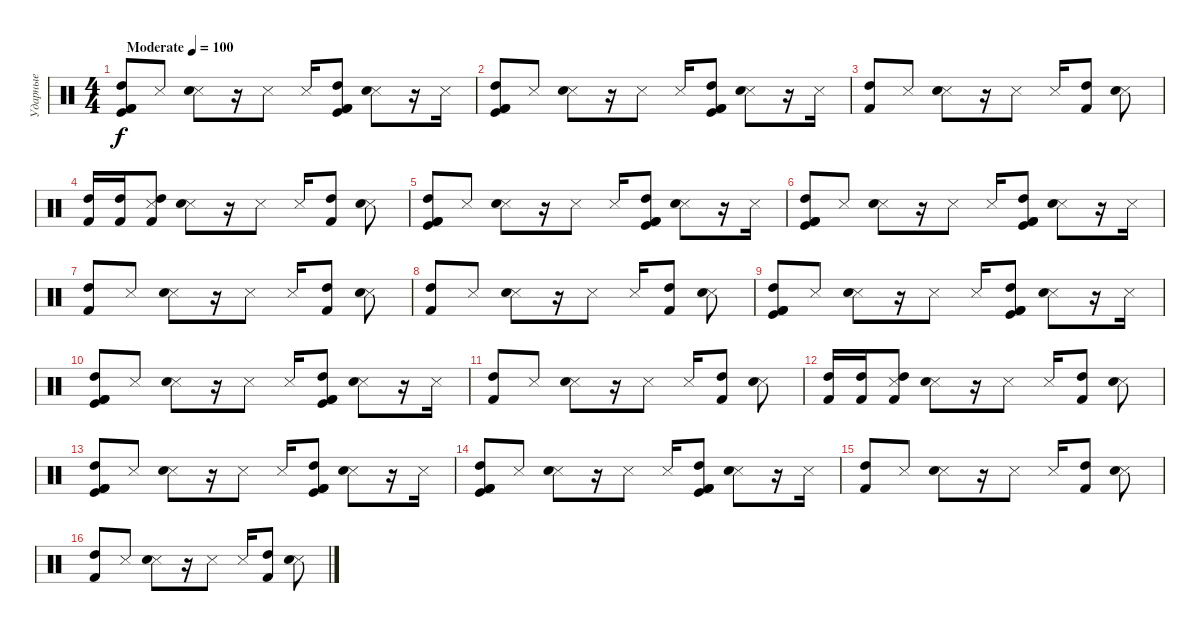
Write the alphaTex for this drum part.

\track ("Ударные" "Ударные") {instrument percussion}
\staff {score}
\articulation defaults
\ts (4 4)
\tempo (100 "Moderate")
\clef neutral
\ks c
("Kick (hit) 2" "Kick (hit)" "Kick (hit) 2" "High Tom (hit)").8{dy f} "Snare (side stick) 3".8 ("Snare (side stick) 3" "Snare (hit) 2").8 r.16 "Snare (side stick) 3".8 "Snare (side stick) 3".16 ("Kick (hit) 2" "Kick (hit)" "Kick (hit) 2" "High Tom (hit)").8 ("Snare (side stick) 3" "Snare (hit) 2").8 r.16 "Snare (side stick) 3".16 |
("Kick (hit)" "Kick (hit) 2" "Kick (hit) 2" "High Tom (hit)").8 "Snare (side stick) 3".8 ("Snare (side stick) 3" "Snare (hit) 2").8 r.16 "Snare (side stick) 3".8 "Snare (side stick) 3".16 ("Kick (hit)" "Kick (hit) 2" "Kick (hit) 2" "High Tom (hit)").8 ("Snare (side stick) 3" "Snare (hit) 2").8 r.16 "Snare (side stick) 3".16 |
("Kick (hit) 2" "High Tom (hit)").8 "Snare (side stick) 3".8 ("Snare (side stick) 3" "Snare (hit) 2").8 r.16 "Snare (side stick) 3".8 "Snare (side stick) 3".16 ("Kick (hit) 2" "High Tom (hit)").8 ("Snare (side stick) 3" "Snare (hit) 2").8 |
("Kick (hit) 2" "High Tom (hit)").16 ("Kick (hit) 2" "High Tom (hit)").16 ("Snare (side stick) 3" "Kick (hit) 2" "High Tom (hit)").8 ("Snare (side stick) 3" "Snare (hit) 2").8 r.16 "Snare (side stick) 3".8 "Snare (side stick) 3".16 ("Kick (hit) 2" "High Tom (hit)").8 ("Snare (side stick) 3" "Snare (hit) 2").8 |
("Kick (hit) 2" "Kick (hit)" "Kick (hit) 2" "High Tom (hit)").8 "Snare (side stick) 3".8 ("Snare (side stick) 3" "Snare (hit) 2").8 r.16 "Snare (side stick) 3".8 "Snare (side stick) 3".16 ("Kick (hit) 2" "Kick (hit)" "Kick (hit) 2" "High Tom (hit)").8 ("Snare (side stick) 3" "Snare (hit) 2").8 r.16 "Snare (side stick) 3".16 |
("Kick (hit)" "Kick (hit) 2" "Kick (hit) 2" "High Tom (hit)").8 "Snare (side stick) 3".8 ("Snare (side stick) 3" "Snare (hit) 2").8 r.16 "Snare (side stick) 3".8 "Snare (side stick) 3".16 ("Kick (hit)" "Kick (hit) 2" "Kick (hit) 2" "High Tom (hit)").8 ("Snare (side stick) 3" "Snare (hit) 2").8 r.16 "Snare (side stick) 3".16 |
("Kick (hit) 2" "High Tom (hit)").8 "Snare (side stick) 3".8 ("Snare (side stick) 3" "Snare (hit) 2").8 r.16 "Snare (side stick) 3".8 "Snare (side stick) 3".16 ("Kick (hit) 2" "High Tom (hit)").8 ("Snare (side stick) 3" "Snare (hit) 2").8 |
("Kick (hit) 2" "High Tom (hit)").8 "Snare (side stick) 3".8 ("Snare (side stick) 3" "Snare (hit) 2").8 r.16 "Snare (side stick) 3".8 "Snare (side stick) 3".16 ("Kick (hit) 2" "High Tom (hit)").8 ("Snare (side stick) 3" "Snare (hit) 2").8 |
("Kick (hit) 2" "Kick (hit)" "Kick (hit) 2" "High Tom (hit)").8 "Snare (side stick) 3".8 ("Snare (side stick) 3" "Snare (hit) 2").8 r.16 "Snare (side stick) 3".8 "Snare (side stick) 3".16 ("Kick (hit) 2" "Kick (hit)" "Kick (hit) 2" "High Tom (hit)").8 ("Snare (side stick) 3" "Snare (hit) 2").8 r.16 "Snare (side stick) 3".16 |
("Kick (hit)" "Kick (hit) 2" "Kick (hit) 2" "High Tom (hit)").8 "Snare (side stick) 3".8 ("Snare (side stick) 3" "Snare (hit) 2").8 r.16 "Snare (side stick) 3".8 "Snare (side stick) 3".16 ("Kick (hit)" "Kick (hit) 2" "Kick (hit) 2" "High Tom (hit)").8 ("Snare (side stick) 3" "Snare (hit) 2").8 r.16 "Snare (side stick) 3".16 |
("Kick (hit) 2" "High Tom (hit)").8 "Snare (side stick) 3".8 ("Snare (side stick) 3" "Snare (hit) 2").8 r.16 "Snare (side stick) 3".8 "Snare (side stick) 3".16 ("Kick (hit) 2" "High Tom (hit)").8 ("Snare (side stick) 3" "Snare (hit) 2").8 |
("Kick (hit) 2" "High Tom (hit)").16 ("Kick (hit) 2" "High Tom (hit)").16 ("Snare (side stick) 3" "Kick (hit) 2" "High Tom (hit)").8 ("Snare (side stick) 3" "Snare (hit) 2").8 r.16 "Snare (side stick) 3".8 "Snare (side stick) 3".16 ("Kick (hit) 2" "High Tom (hit)").8 ("Snare (side stick) 3" "Snare (hit) 2").8 |
("Kick (hit) 2" "Kick (hit)" "Kick (hit) 2" "High Tom (hit)").8 "Snare (side stick) 3".8 ("Snare (side stick) 3" "Snare (hit) 2").8 r.16 "Snare (side stick) 3".8 "Snare (side stick) 3".16 ("Kick (hit) 2" "Kick (hit)" "Kick (hit) 2" "High Tom (hit)").8 ("Snare (side stick) 3" "Snare (hit) 2").8 r.16 "Snare (side stick) 3".16 |
("Kick (hit)" "Kick (hit) 2" "Kick (hit) 2" "High Tom (hit)").8 "Snare (side stick) 3".8 ("Snare (side stick) 3" "Snare (hit) 2").8 r.16 "Snare (side stick) 3".8 "Snare (side stick) 3".16 ("Kick (hit)" "Kick (hit) 2" "Kick (hit) 2" "High Tom (hit)").8 ("Snare (side stick) 3" "Snare (hit) 2").8 r.16 "Snare (side stick) 3".16 |
("Kick (hit) 2" "High Tom (hit)").8 "Snare (side stick) 3".8 ("Snare (side stick) 3" "Snare (hit) 2").8 r.16 "Snare (side stick) 3".8 "Snare (side stick) 3".16 ("Kick (hit) 2" "High Tom (hit)").8 ("Snare (side stick) 3" "Snare (hit) 2").8 |
("Kick (hit) 2" "High Tom (hit)").8 "Snare (side stick) 3".8 ("Snare (side stick) 3" "Snare (hit) 2").8 r.16 "Snare (side stick) 3".8 "Snare (side stick) 3".16 ("Kick (hit) 2" "High Tom (hit)").8 ("Snare (side stick) 3" "Snare (hit) 2").8
